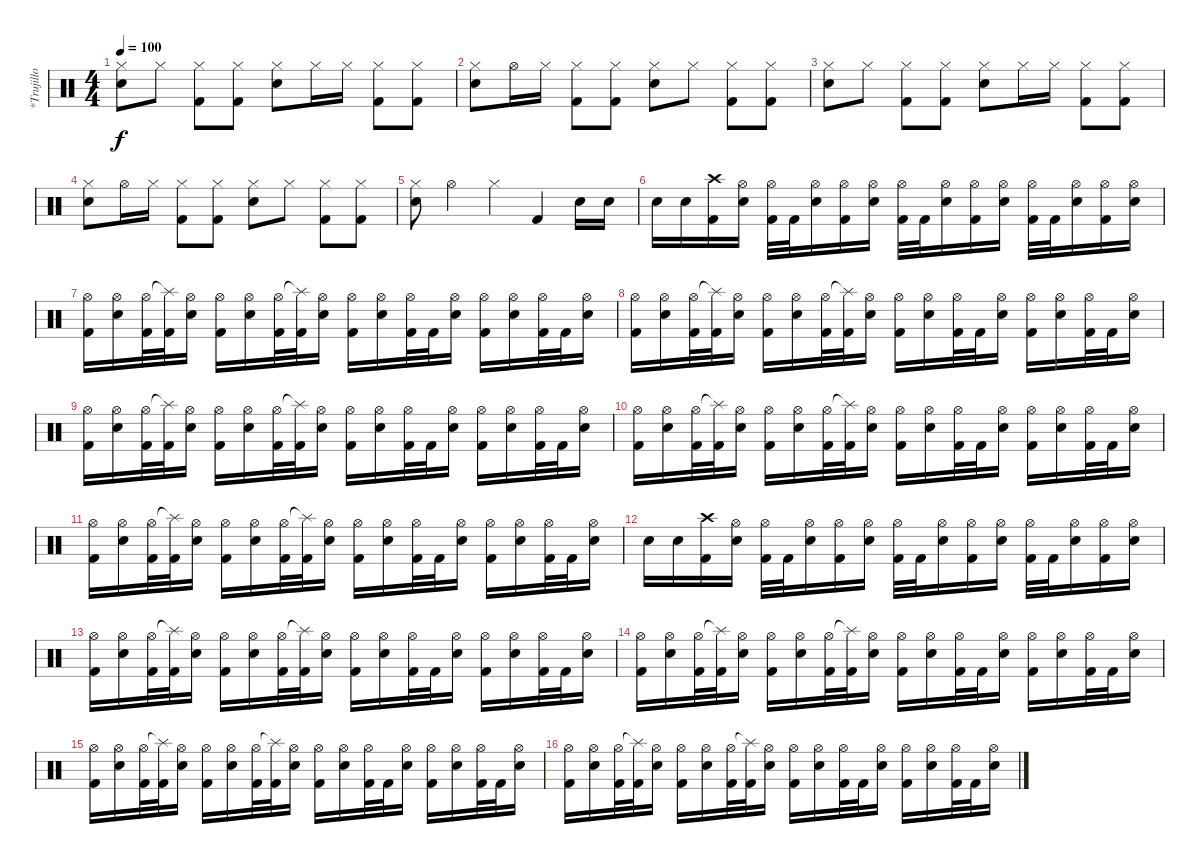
\track ("*Trujillo" "*Trujillo") {instrument percussion}
\staff {score}
\articulation defaults
\ts (4 4)
\tempo 100
\clef neutral
\ks c
("Hi-Hat (closed)" "Electric Snare (hit)").8{dy f} "Hi-Hat (closed)".8 ("Hi-Hat (closed)" "Kick (hit) 2").8 ("Hi-Hat (closed)" "Kick (hit) 2").8 ("Hi-Hat (closed)" "Electric Snare (hit)").8 "Hi-Hat (closed)".16 "Hi-Hat (closed)".16 ("Hi-Hat (closed)" "Kick (hit) 2").8 ("Hi-Hat (closed)" "Kick (hit) 2").8 |
("Hi-Hat (closed)" "Electric Snare (hit)").8 "Hi-Hat (open)".16 "Hi-Hat (closed)".16 ("Hi-Hat (closed)" "Kick (hit) 2").8 ("Hi-Hat (closed)" "Kick (hit) 2").8 ("Hi-Hat (closed)" "Electric Snare (hit)").8 "Hi-Hat (closed)".8 ("Hi-Hat (closed)" "Kick (hit) 2").8 ("Hi-Hat (closed)" "Kick (hit) 2").8 |
("Hi-Hat (closed)" "Electric Snare (hit)").8 "Hi-Hat (closed)".8 ("Hi-Hat (closed)" "Kick (hit) 2").8 ("Hi-Hat (closed)" "Kick (hit) 2").8 ("Hi-Hat (closed)" "Electric Snare (hit)").8 "Hi-Hat (closed)".16 "Hi-Hat (closed)".16 ("Hi-Hat (closed)" "Kick (hit) 2").8 ("Hi-Hat (closed)" "Kick (hit) 2").8 |
("Hi-Hat (closed)" "Electric Snare (hit)").8 "Hi-Hat (open)".16 "Hi-Hat (closed)".16 ("Hi-Hat (closed)" "Kick (hit) 2").8 ("Hi-Hat (closed)" "Kick (hit) 2").8 ("Hi-Hat (closed)" "Electric Snare (hit)").8 "Hi-Hat (closed)".8 ("Hi-Hat (closed)" "Kick (hit) 2").8 ("Hi-Hat (closed)" "Kick (hit) 2").8 |
("Hi-Hat (closed)" "Electric Snare (hit)").8 "Hi-Hat (open)".4 "Hi-Hat (closed)".4 "Kick (hit) 2".4 "Electric Snare (hit)".16 "Electric Snare (hit)".16 |
"Electric Snare (hit)".16 "Electric Snare (hit)".16 ("Crash high (hit)" "Kick (hit) 2").16 ("Hi-Hat (open)" "Electric Snare (hit)").16 ("Hi-Hat (open)" "Kick (hit) 2").32 "Kick (hit) 2".32 ("Hi-Hat (open)" "Electric Snare (hit)").16 ("Hi-Hat (open)" "Kick (hit) 2").16 ("Hi-Hat (open)" "Electric Snare (hit)").16 ("Hi-Hat (open)" "Kick (hit) 2").32 "Kick (hit) 2".32 ("Hi-Hat (open)" "Electric Snare (hit)").16 ("Hi-Hat (open)" "Kick (hit) 2").16 ("Hi-Hat (open)" "Electric Snare (hit)").16 ("Hi-Hat (open)" "Kick (hit) 2").32 "Kick (hit) 2".32 ("Hi-Hat (open)" "Electric Snare (hit)").16 ("Hi-Hat (open)" "Kick (hit) 2").16 ("Hi-Hat (open)" "Electric Snare (hit)").16 |
("Hi-Hat (open)" "Kick (hit) 2").16 ("Hi-Hat (open)" "Electric Snare (hit)").16 ("Hi-Hat (open)" "Kick (hit) 2").32 ("Splash (hit)"{t} "Kick (hit) 2").32 ("Hi-Hat (open)" "Electric Snare (hit)").16 ("Hi-Hat (open)" "Kick (hit) 2").16 ("Hi-Hat (open)" "Electric Snare (hit)").16 ("Hi-Hat (open)" "Kick (hit) 2").32 ("Splash (hit)"{t} "Kick (hit) 2").32 ("Hi-Hat (open)" "Electric Snare (hit)").16 ("Hi-Hat (open)" "Kick (hit) 2").16 ("Hi-Hat (open)" "Electric Snare (hit)").16 ("Hi-Hat (open)" "Kick (hit) 2").32 "Kick (hit) 2".32 ("Hi-Hat (open)" "Electric Snare (hit)").16 ("Kick (hit) 2" "Hi-Hat (open)").16 ("Hi-Hat (open)" "Electric Snare (hit)").16 ("Hi-Hat (open)" "Kick (hit) 2").32 "Kick (hit) 2".32 ("Hi-Hat (open)" "Electric Snare (hit)").16 |
("Hi-Hat (open)" "Kick (hit) 2").16 ("Hi-Hat (open)" "Electric Snare (hit)").16 ("Hi-Hat (open)" "Kick (hit) 2").32 ("Splash (hit)"{t} "Kick (hit) 2").32 ("Hi-Hat (open)" "Electric Snare (hit)").16 ("Hi-Hat (open)" "Kick (hit) 2").16 ("Hi-Hat (open)" "Electric Snare (hit)").16 ("Hi-Hat (open)" "Kick (hit) 2").32 ("Splash (hit)"{t} "Kick (hit) 2").32 ("Hi-Hat (open)" "Electric Snare (hit)").16 ("Hi-Hat (open)" "Kick (hit) 2").16 ("Hi-Hat (open)" "Electric Snare (hit)").16 ("Hi-Hat (open)" "Kick (hit) 2").32 "Kick (hit) 2".32 ("Hi-Hat (open)" "Electric Snare (hit)").16 ("Kick (hit) 2" "Hi-Hat (open)").16 ("Hi-Hat (open)" "Electric Snare (hit)").16 ("Hi-Hat (open)" "Kick (hit) 2").32 "Kick (hit) 2".32 ("Hi-Hat (open)" "Electric Snare (hit)").16 |
("Hi-Hat (open)" "Kick (hit) 2").16 ("Hi-Hat (open)" "Electric Snare (hit)").16 ("Hi-Hat (open)" "Kick (hit) 2").32 ("Splash (hit)"{t} "Kick (hit) 2").32 ("Hi-Hat (open)" "Electric Snare (hit)").16 ("Hi-Hat (open)" "Kick (hit) 2").16 ("Hi-Hat (open)" "Electric Snare (hit)").16 ("Hi-Hat (open)" "Kick (hit) 2").32 ("Splash (hit)"{t} "Kick (hit) 2").32 ("Hi-Hat (open)" "Electric Snare (hit)").16 ("Hi-Hat (open)" "Kick (hit) 2").16 ("Hi-Hat (open)" "Electric Snare (hit)").16 ("Hi-Hat (open)" "Kick (hit) 2").32 "Kick (hit) 2".32 ("Hi-Hat (open)" "Electric Snare (hit)").16 ("Kick (hit) 2" "Hi-Hat (open)").16 ("Hi-Hat (open)" "Electric Snare (hit)").16 ("Hi-Hat (open)" "Kick (hit) 2").32 "Kick (hit) 2".32 ("Hi-Hat (open)" "Electric Snare (hit)").16 |
("Hi-Hat (open)" "Kick (hit) 2").16 ("Hi-Hat (open)" "Electric Snare (hit)").16 ("Hi-Hat (open)" "Kick (hit) 2").32 ("Splash (hit)"{t} "Kick (hit) 2").32 ("Hi-Hat (open)" "Electric Snare (hit)").16 ("Hi-Hat (open)" "Kick (hit) 2").16 ("Hi-Hat (open)" "Electric Snare (hit)").16 ("Hi-Hat (open)" "Kick (hit) 2").32 ("Splash (hit)"{t} "Kick (hit) 2").32 ("Hi-Hat (open)" "Electric Snare (hit)").16 ("Hi-Hat (open)" "Kick (hit) 2").16 ("Hi-Hat (open)" "Electric Snare (hit)").16 ("Hi-Hat (open)" "Kick (hit) 2").32 "Kick (hit) 2".32 ("Hi-Hat (open)" "Electric Snare (hit)").16 ("Kick (hit) 2" "Hi-Hat (open)").16 ("Hi-Hat (open)" "Electric Snare (hit)").16 ("Hi-Hat (open)" "Kick (hit) 2").32 "Kick (hit) 2".32 ("Hi-Hat (open)" "Electric Snare (hit)").16 |
("Hi-Hat (open)" "Kick (hit) 2").16 ("Hi-Hat (open)" "Electric Snare (hit)").16 ("Hi-Hat (open)" "Kick (hit) 2").32 ("Splash (hit)"{t} "Kick (hit) 2").32 ("Hi-Hat (open)" "Electric Snare (hit)").16 ("Hi-Hat (open)" "Kick (hit) 2").16 ("Hi-Hat (open)" "Electric Snare (hit)").16 ("Hi-Hat (open)" "Kick (hit) 2").32 ("Splash (hit)"{t} "Kick (hit) 2").32 ("Hi-Hat (open)" "Electric Snare (hit)").16 ("Hi-Hat (open)" "Kick (hit) 2").16 ("Hi-Hat (open)" "Electric Snare (hit)").16 ("Hi-Hat (open)" "Kick (hit) 2").32 "Kick (hit) 2".32 ("Hi-Hat (open)" "Electric Snare (hit)").16 ("Kick (hit) 2" "Hi-Hat (open)").16 ("Hi-Hat (open)" "Electric Snare (hit)").16 ("Hi-Hat (open)" "Kick (hit) 2").32 "Kick (hit) 2".32 ("Hi-Hat (open)" "Electric Snare (hit)").16 |
"Electric Snare (hit)".16 "Electric Snare (hit)".16 ("Crash high (hit)" "Kick (hit) 2").16 ("Hi-Hat (open)" "Electric Snare (hit)").16 ("Hi-Hat (open)" "Kick (hit) 2").32 "Kick (hit) 2".32 ("Hi-Hat (open)" "Electric Snare (hit)").16 ("Hi-Hat (open)" "Kick (hit) 2").16 ("Hi-Hat (open)" "Electric Snare (hit)").16 ("Hi-Hat (open)" "Kick (hit) 2").32 "Kick (hit) 2".32 ("Hi-Hat (open)" "Electric Snare (hit)").16 ("Hi-Hat (open)" "Kick (hit) 2").16 ("Hi-Hat (open)" "Electric Snare (hit)").16 ("Hi-Hat (open)" "Kick (hit) 2").32 "Kick (hit) 2".32 ("Hi-Hat (open)" "Electric Snare (hit)").16 ("Hi-Hat (open)" "Kick (hit) 2").16 ("Hi-Hat (open)" "Electric Snare (hit)").16 |
("Hi-Hat (open)" "Kick (hit) 2").16 ("Hi-Hat (open)" "Electric Snare (hit)").16 ("Hi-Hat (open)" "Kick (hit) 2").32 ("Splash (hit)"{t} "Kick (hit) 2").32 ("Hi-Hat (open)" "Electric Snare (hit)").16 ("Hi-Hat (open)" "Kick (hit) 2").16 ("Hi-Hat (open)" "Electric Snare (hit)").16 ("Hi-Hat (open)" "Kick (hit) 2").32 ("Splash (hit)"{t} "Kick (hit) 2").32 ("Hi-Hat (open)" "Electric Snare (hit)").16 ("Hi-Hat (open)" "Kick (hit) 2").16 ("Hi-Hat (open)" "Electric Snare (hit)").16 ("Hi-Hat (open)" "Kick (hit) 2").32 "Kick (hit) 2".32 ("Hi-Hat (open)" "Electric Snare (hit)").16 ("Kick (hit) 2" "Hi-Hat (open)").16 ("Hi-Hat (open)" "Electric Snare (hit)").16 ("Hi-Hat (open)" "Kick (hit) 2").32 "Kick (hit) 2".32 ("Hi-Hat (open)" "Electric Snare (hit)").16 |
("Hi-Hat (open)" "Kick (hit) 2").16 ("Hi-Hat (open)" "Electric Snare (hit)").16 ("Hi-Hat (open)" "Kick (hit) 2").32 ("Splash (hit)"{t} "Kick (hit) 2").32 ("Hi-Hat (open)" "Electric Snare (hit)").16 ("Hi-Hat (open)" "Kick (hit) 2").16 ("Hi-Hat (open)" "Electric Snare (hit)").16 ("Hi-Hat (open)" "Kick (hit) 2").32 ("Splash (hit)"{t} "Kick (hit) 2").32 ("Hi-Hat (open)" "Electric Snare (hit)").16 ("Hi-Hat (open)" "Kick (hit) 2").16 ("Hi-Hat (open)" "Electric Snare (hit)").16 ("Hi-Hat (open)" "Kick (hit) 2").32 "Kick (hit) 2".32 ("Hi-Hat (open)" "Electric Snare (hit)").16 ("Kick (hit) 2" "Hi-Hat (open)").16 ("Hi-Hat (open)" "Electric Snare (hit)").16 ("Hi-Hat (open)" "Kick (hit) 2").32 "Kick (hit) 2".32 ("Hi-Hat (open)" "Electric Snare (hit)").16 |
("Hi-Hat (open)" "Kick (hit) 2").16 ("Hi-Hat (open)" "Electric Snare (hit)").16 ("Hi-Hat (open)" "Kick (hit) 2").32 ("Splash (hit)"{t} "Kick (hit) 2").32 ("Hi-Hat (open)" "Electric Snare (hit)").16 ("Hi-Hat (open)" "Kick (hit) 2").16 ("Hi-Hat (open)" "Electric Snare (hit)").16 ("Hi-Hat (open)" "Kick (hit) 2").32 ("Splash (hit)"{t} "Kick (hit) 2").32 ("Hi-Hat (open)" "Electric Snare (hit)").16 ("Hi-Hat (open)" "Kick (hit) 2").16 ("Hi-Hat (open)" "Electric Snare (hit)").16 ("Hi-Hat (open)" "Kick (hit) 2").32 "Kick (hit) 2".32 ("Hi-Hat (open)" "Electric Snare (hit)").16 ("Kick (hit) 2" "Hi-Hat (open)").16 ("Hi-Hat (open)" "Electric Snare (hit)").16 ("Hi-Hat (open)" "Kick (hit) 2").32 "Kick (hit) 2".32 ("Hi-Hat (open)" "Electric Snare (hit)").16 |
("Hi-Hat (open)" "Kick (hit) 2").16 ("Hi-Hat (open)" "Electric Snare (hit)").16 ("Hi-Hat (open)" "Kick (hit) 2").32 ("Splash (hit)"{t} "Kick (hit) 2").32 ("Hi-Hat (open)" "Electric Snare (hit)").16 ("Hi-Hat (open)" "Kick (hit) 2").16 ("Hi-Hat (open)" "Electric Snare (hit)").16 ("Hi-Hat (open)" "Kick (hit) 2").32 ("Splash (hit)"{t} "Kick (hit) 2").32 ("Hi-Hat (open)" "Electric Snare (hit)").16 ("Hi-Hat (open)" "Kick (hit) 2").16 ("Hi-Hat (open)" "Electric Snare (hit)").16 ("Hi-Hat (open)" "Kick (hit) 2").32 "Kick (hit) 2".32 ("Hi-Hat (open)" "Electric Snare (hit)").16 ("Kick (hit) 2" "Hi-Hat (open)").16 ("Hi-Hat (open)" "Electric Snare (hit)").16 ("Hi-Hat (open)" "Kick (hit) 2").32 "Kick (hit) 2".32 ("Hi-Hat (open)" "Electric Snare (hit)").16
